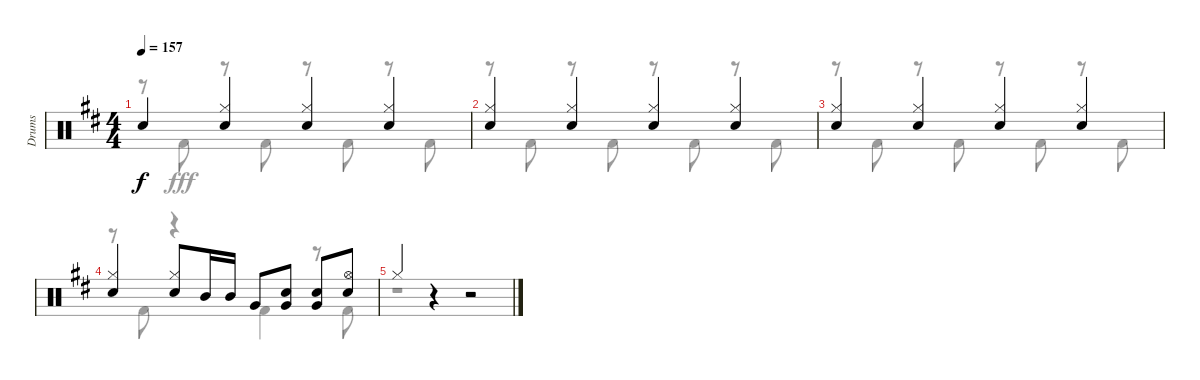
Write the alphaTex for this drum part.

\track ("Drums" "Drums") {instrument percussion}
\staff {score}
\articulation defaults
\voice
\ts (4 4)
\tempo 157
\clef neutral
\ks d "Snare (hit)"{t}.4{dy f}
("Hi-Hat (closed)" "Snare (hit) 2").4 ("Hi-Hat (closed)" "Snare (hit) 2").4 ("Hi-Hat (closed)" "Snare (hit) 2").4 |
("Hi-Hat (closed)" "Snare (hit) 2").4 ("Hi-Hat (closed)" "Snare (hit) 2").4 ("Hi-Hat (closed)" "Snare (hit) 2").4 ("Hi-Hat (closed)" "Snare (hit) 2").4 |
("Hi-Hat (closed)" "Snare (hit) 2").4 ("Hi-Hat (closed)" "Snare (hit) 2").4 ("Hi-Hat (closed)" "Snare (hit) 2").4 ("Hi-Hat (closed)" "Snare (hit) 2").4 |
("Hi-Hat (closed)" "Snare (hit) 2").4 ("Hi-Hat (closed)" "Snare (hit) 2").8 "Mid Tom (hit)".16 "Mid Tom (hit)".16 "Very Low Tom (hit)".8 ("Snare (hit) 2" "Very Low Tom (hit)").8 ("Snare (hit) 2" "Very Low Tom (hit)").8 ("Hi-Hat (open)" "Snare (hit) 2").8 |
"Hi-Hat (closed)".4 r.4 r.2
\voice
\clef neutral
\ottava regular
\simile none
\ks d
r.8{dy fff} "Kick (hit) 2".8 r.8 "Kick (hit) 2".8 r.8 "Kick (hit) 2".8 r.8 "Kick (hit) 2".8 |
r.8 "Kick (hit) 2".8 r.8 "Kick (hit) 2".8 r.8 "Kick (hit) 2".8 r.8 "Kick (hit) 2".8 |
r.8 "Kick (hit) 2".8 r.8 "Kick (hit) 2".8 r.8 "Kick (hit) 2".8 r.8 "Kick (hit) 2".8 |
r.8 "Kick (hit) 2".8 r.4 "Kick (hit) 2".4 r.8 "Kick (hit) 2".8 |
r.1
